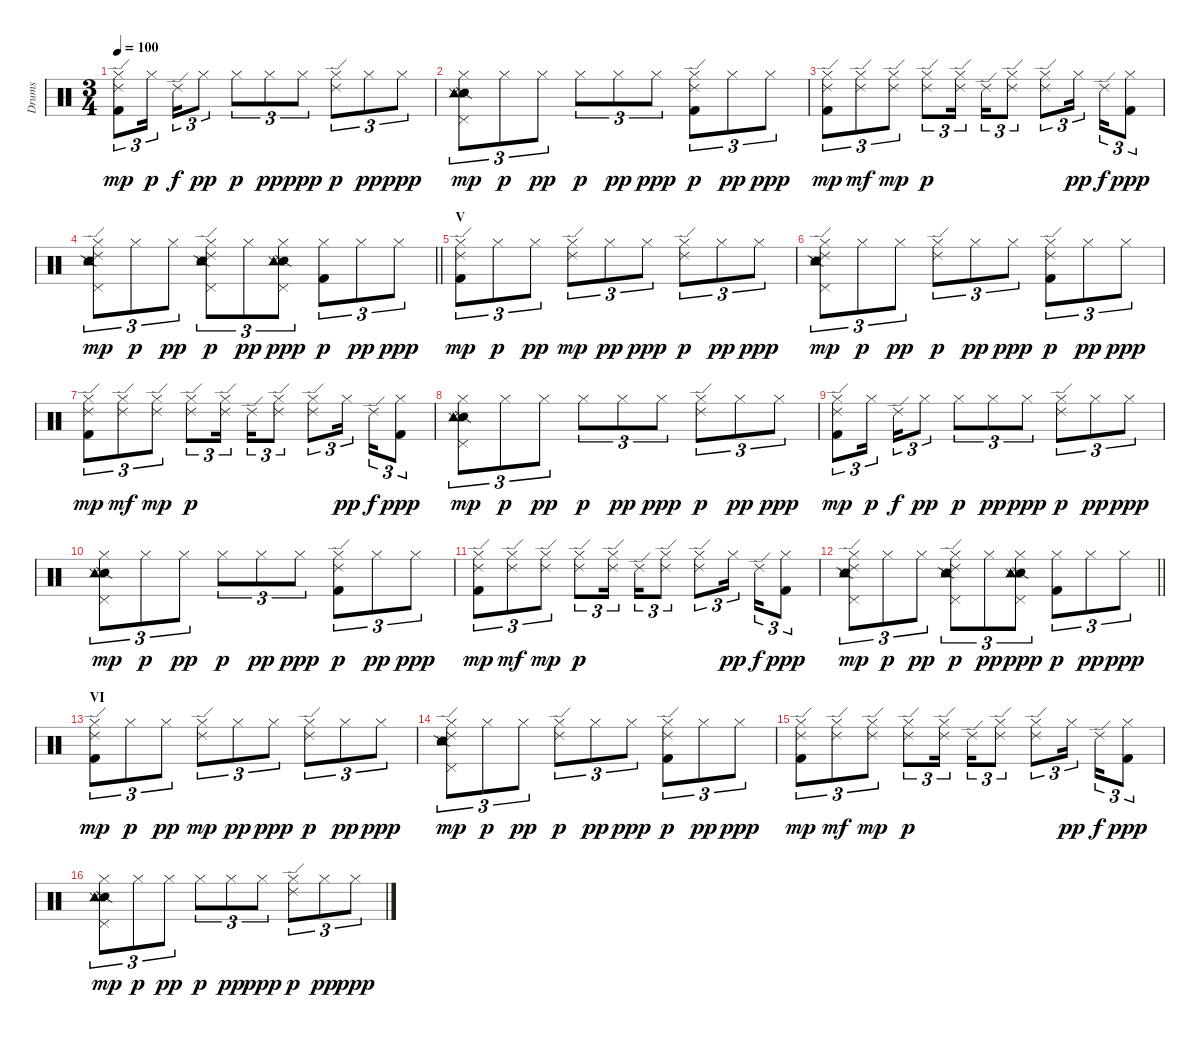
\track ("Drums" "Drums") {instrument percussion}
\staff {score}
\articulation defaults
\ts (3 4)
\tempo 100
\clef neutral
\ks c
("Hi-Hat (closed)" "Ride (edge) 2" "Kick (hit) 2").8{tu (3 2) dy mp} "Hi-Hat (closed)".16{tu (3 2) dy p beam splitsecondary} "Ride (edge) 2".16{tu (3 2) dy f} "Hi-Hat (closed)".8{tu (3 2) dy pp} "Hi-Hat (closed)".8{tu (3 2) dy p} "Hi-Hat (closed)".8{tu (3 2) dy pp} "Hi-Hat (closed)".8{tu (3 2) dy ppp} ("Hi-Hat (closed)" "Ride (edge) 2").8{tu (3 2) dy p} "Hi-Hat (closed)".8{tu (3 2) dy pp} "Hi-Hat (closed)".8{tu (3 2) dy ppp} |
("Hi-Hat (closed)" "Pedal Hi-Hat (hit)" "Snare (side stick) 2" "Snare (side stick) 3" "Tambourine (hit)").8{tu (3 2) dy mp} "Hi-Hat (closed)".8{tu (3 2) dy p} "Hi-Hat (closed)".8{tu (3 2) dy pp} "Hi-Hat (closed)".8{tu (3 2) dy p} "Hi-Hat (closed)".8{tu (3 2) dy pp} "Hi-Hat (closed)".8{tu (3 2) dy ppp} ("Hi-Hat (closed)" "Ride (edge) 2" "Kick (hit) 2").8{tu (3 2) dy p} "Hi-Hat (closed)".8{tu (3 2) dy pp} "Hi-Hat (closed)".8{tu (3 2) dy ppp} |
("Hi-Hat (closed)" "Ride (edge) 2" "Kick (hit) 2").8{tu (3 2) dy mp} ("Hi-Hat (closed)" "Ride (edge) 2").8{tu (3 2) dy mf} ("Hi-Hat (closed)" "Ride (edge) 2").8{tu (3 2) dy mp} ("Hi-Hat (closed)" "Ride (edge) 2").8{tu (3 2) dy p} ("Hi-Hat (closed)" "Ride (edge) 2").16{tu (3 2) beam splitsecondary} "Ride (edge) 2".16{tu (3 2)} ("Hi-Hat (closed)" "Ride (edge) 2").8{tu (3 2)} ("Hi-Hat (closed)" "Ride (edge) 2").8{tu (3 2)} "Hi-Hat (closed)".16{tu (3 2) dy pp beam splitsecondary} "Ride (edge) 2".16{tu (3 2) dy f} ("Hi-Hat (closed)" "Kick (hit) 2").8{tu (3 2) dy ppp} |
\barLineRight lightlight
("Hi-Hat (closed)" "Ride (edge) 2" "Pedal Hi-Hat (hit)" "Snare (side stick) 2" "Snare (side stick) 3" "Tambourine (hit)").8{tu (3 2) dy mp} "Hi-Hat (closed)".8{tu (3 2) dy p} "Hi-Hat (closed)".8{tu (3 2) dy pp} ("Hi-Hat (closed)" "Ride (edge) 2" "Pedal Hi-Hat (hit)" "Snare (side stick) 2" "Snare (side stick) 3" "Tambourine (hit)").8{tu (3 2) dy p} "Hi-Hat (closed)".8{tu (3 2) dy pp} ("Hi-Hat (closed)" "Pedal Hi-Hat (hit)" "Snare (side stick) 2" "Snare (side stick) 3" "Tambourine (hit)").8{tu (3 2) dy ppp} ("Hi-Hat (closed)" "Kick (hit) 2").8{tu (3 2) dy p} "Hi-Hat (closed)".8{tu (3 2) dy pp} "Hi-Hat (closed)".8{tu (3 2) dy ppp} |
\section ("" "V")
("Hi-Hat (closed)" "Ride (edge) 2" "Kick (hit) 2").8{tu (3 2) dy mp} "Hi-Hat (closed)".8{tu (3 2) dy p} "Hi-Hat (closed)".8{tu (3 2) dy pp} ("Hi-Hat (closed)" "Ride (edge) 2").8{tu (3 2) dy mp} "Hi-Hat (closed)".8{tu (3 2) dy pp} "Hi-Hat (closed)".8{tu (3 2) dy ppp} ("Hi-Hat (closed)" "Ride (edge) 2").8{tu (3 2) dy p} "Hi-Hat (closed)".8{tu (3 2) dy pp} "Hi-Hat (closed)".8{tu (3 2) dy ppp} |
("Hi-Hat (closed)" "Ride (edge) 2" "Pedal Hi-Hat (hit)" "Snare (side stick) 2" "Snare (side stick) 3" "Tambourine (hit)").8{tu (3 2) dy mp} "Hi-Hat (closed)".8{tu (3 2) dy p} "Hi-Hat (closed)".8{tu (3 2) dy pp} ("Hi-Hat (closed)" "Ride (edge) 2").8{tu (3 2) dy p} "Hi-Hat (closed)".8{tu (3 2) dy pp} "Hi-Hat (closed)".8{tu (3 2) dy ppp} ("Hi-Hat (closed)" "Ride (edge) 2" "Kick (hit) 2").8{tu (3 2) dy p} "Hi-Hat (closed)".8{tu (3 2) dy pp} "Hi-Hat (closed)".8{tu (3 2) dy ppp} |
("Hi-Hat (closed)" "Ride (edge) 2" "Kick (hit) 2").8{tu (3 2) dy mp} ("Hi-Hat (closed)" "Ride (edge) 2").8{tu (3 2) dy mf} ("Hi-Hat (closed)" "Ride (edge) 2").8{tu (3 2) dy mp} ("Hi-Hat (closed)" "Ride (edge) 2").8{tu (3 2) dy p} ("Hi-Hat (closed)" "Ride (edge) 2").16{tu (3 2) beam splitsecondary} "Ride (edge) 2".16{tu (3 2)} ("Hi-Hat (closed)" "Ride (edge) 2").8{tu (3 2)} ("Hi-Hat (closed)" "Ride (edge) 2").8{tu (3 2)} "Hi-Hat (closed)".16{tu (3 2) dy pp beam splitsecondary} "Ride (edge) 2".16{tu (3 2) dy f} ("Hi-Hat (closed)" "Kick (hit) 2").8{tu (3 2) dy ppp} |
("Hi-Hat (closed)" "Pedal Hi-Hat (hit)" "Snare (side stick) 2" "Snare (side stick) 3" "Tambourine (hit)").8{tu (3 2) dy mp} "Hi-Hat (closed)".8{tu (3 2) dy p} "Hi-Hat (closed)".8{tu (3 2) dy pp} "Hi-Hat (closed)".8{tu (3 2) dy p} "Hi-Hat (closed)".8{tu (3 2) dy pp} "Hi-Hat (closed)".8{tu (3 2) dy ppp} ("Hi-Hat (closed)" "Ride (edge) 2").8{tu (3 2) dy p} "Hi-Hat (closed)".8{tu (3 2) dy pp} "Hi-Hat (closed)".8{tu (3 2) dy ppp} |
("Hi-Hat (closed)" "Ride (edge) 2" "Kick (hit) 2").8{tu (3 2) dy mp} "Hi-Hat (closed)".16{tu (3 2) dy p beam splitsecondary} "Ride (edge) 2".16{tu (3 2) dy f} "Hi-Hat (closed)".8{tu (3 2) dy pp} "Hi-Hat (closed)".8{tu (3 2) dy p} "Hi-Hat (closed)".8{tu (3 2) dy pp} "Hi-Hat (closed)".8{tu (3 2) dy ppp} ("Hi-Hat (closed)" "Ride (edge) 2").8{tu (3 2) dy p} "Hi-Hat (closed)".8{tu (3 2) dy pp} "Hi-Hat (closed)".8{tu (3 2) dy ppp} |
("Hi-Hat (closed)" "Pedal Hi-Hat (hit)" "Snare (side stick) 2" "Snare (side stick) 3" "Tambourine (hit)").8{tu (3 2) dy mp} "Hi-Hat (closed)".8{tu (3 2) dy p} "Hi-Hat (closed)".8{tu (3 2) dy pp} "Hi-Hat (closed)".8{tu (3 2) dy p} "Hi-Hat (closed)".8{tu (3 2) dy pp} "Hi-Hat (closed)".8{tu (3 2) dy ppp} ("Hi-Hat (closed)" "Ride (edge) 2" "Kick (hit) 2").8{tu (3 2) dy p} "Hi-Hat (closed)".8{tu (3 2) dy pp} "Hi-Hat (closed)".8{tu (3 2) dy ppp} |
("Hi-Hat (closed)" "Ride (edge) 2" "Kick (hit) 2").8{tu (3 2) dy mp} ("Hi-Hat (closed)" "Ride (edge) 2").8{tu (3 2) dy mf} ("Hi-Hat (closed)" "Ride (edge) 2").8{tu (3 2) dy mp} ("Hi-Hat (closed)" "Ride (edge) 2").8{tu (3 2) dy p} ("Hi-Hat (closed)" "Ride (edge) 2").16{tu (3 2) beam splitsecondary} "Ride (edge) 2".16{tu (3 2)} ("Hi-Hat (closed)" "Ride (edge) 2").8{tu (3 2)} ("Hi-Hat (closed)" "Ride (edge) 2").8{tu (3 2)} "Hi-Hat (closed)".16{tu (3 2) dy pp beam splitsecondary} "Ride (edge) 2".16{tu (3 2) dy f} ("Hi-Hat (closed)" "Kick (hit) 2").8{tu (3 2) dy ppp} |
\barLineRight lightlight
("Hi-Hat (closed)" "Ride (edge) 2" "Pedal Hi-Hat (hit)" "Snare (side stick) 2" "Snare (side stick) 3" "Tambourine (hit)").8{tu (3 2) dy mp} "Hi-Hat (closed)".8{tu (3 2) dy p} "Hi-Hat (closed)".8{tu (3 2) dy pp} ("Hi-Hat (closed)" "Ride (edge) 2" "Pedal Hi-Hat (hit)" "Snare (side stick) 2" "Snare (side stick) 3" "Tambourine (hit)").8{tu (3 2) dy p} "Hi-Hat (closed)".8{tu (3 2) dy pp} ("Hi-Hat (closed)" "Pedal Hi-Hat (hit)" "Snare (side stick) 2" "Snare (side stick) 3" "Tambourine (hit)").8{tu (3 2) dy ppp} ("Hi-Hat (closed)" "Kick (hit) 2").8{tu (3 2) dy p} "Hi-Hat (closed)".8{tu (3 2) dy pp} "Hi-Hat (closed)".8{tu (3 2) dy ppp} |
\section ("" "VI")
("Hi-Hat (closed)" "Ride (edge) 2" "Kick (hit) 2").8{tu (3 2) dy mp} "Hi-Hat (closed)".8{tu (3 2) dy p} "Hi-Hat (closed)".8{tu (3 2) dy pp} ("Hi-Hat (closed)" "Ride (edge) 2").8{tu (3 2) dy mp} "Hi-Hat (closed)".8{tu (3 2) dy pp} "Hi-Hat (closed)".8{tu (3 2) dy ppp} ("Hi-Hat (closed)" "Ride (edge) 2").8{tu (3 2) dy p} "Hi-Hat (closed)".8{tu (3 2) dy pp} "Hi-Hat (closed)".8{tu (3 2) dy ppp} |
("Hi-Hat (closed)" "Ride (edge) 2" "Pedal Hi-Hat (hit)" "Snare (side stick) 2" "Snare (side stick) 3" "Tambourine (hit)").8{tu (3 2) dy mp} "Hi-Hat (closed)".8{tu (3 2) dy p} "Hi-Hat (closed)".8{tu (3 2) dy pp} ("Hi-Hat (closed)" "Ride (edge) 2").8{tu (3 2) dy p} "Hi-Hat (closed)".8{tu (3 2) dy pp} "Hi-Hat (closed)".8{tu (3 2) dy ppp} ("Hi-Hat (closed)" "Ride (edge) 2" "Kick (hit) 2").8{tu (3 2) dy p} "Hi-Hat (closed)".8{tu (3 2) dy pp} "Hi-Hat (closed)".8{tu (3 2) dy ppp} |
("Hi-Hat (closed)" "Ride (edge) 2" "Kick (hit) 2").8{tu (3 2) dy mp} ("Hi-Hat (closed)" "Ride (edge) 2").8{tu (3 2) dy mf} ("Hi-Hat (closed)" "Ride (edge) 2").8{tu (3 2) dy mp} ("Hi-Hat (closed)" "Ride (edge) 2").8{tu (3 2) dy p} ("Hi-Hat (closed)" "Ride (edge) 2").16{tu (3 2) beam splitsecondary} "Ride (edge) 2".16{tu (3 2)} ("Hi-Hat (closed)" "Ride (edge) 2").8{tu (3 2)} ("Hi-Hat (closed)" "Ride (edge) 2").8{tu (3 2)} "Hi-Hat (closed)".16{tu (3 2) dy pp beam splitsecondary} "Ride (edge) 2".16{tu (3 2) dy f} ("Hi-Hat (closed)" "Kick (hit) 2").8{tu (3 2) dy ppp} |
("Hi-Hat (closed)" "Pedal Hi-Hat (hit)" "Snare (side stick) 2" "Snare (side stick) 3" "Tambourine (hit)").8{tu (3 2) dy mp} "Hi-Hat (closed)".8{tu (3 2) dy p} "Hi-Hat (closed)".8{tu (3 2) dy pp} "Hi-Hat (closed)".8{tu (3 2) dy p} "Hi-Hat (closed)".8{tu (3 2) dy pp} "Hi-Hat (closed)".8{tu (3 2) dy ppp} ("Hi-Hat (closed)" "Ride (edge) 2").8{tu (3 2) dy p} "Hi-Hat (closed)".8{tu (3 2) dy pp} "Hi-Hat (closed)".8{tu (3 2) dy ppp}
